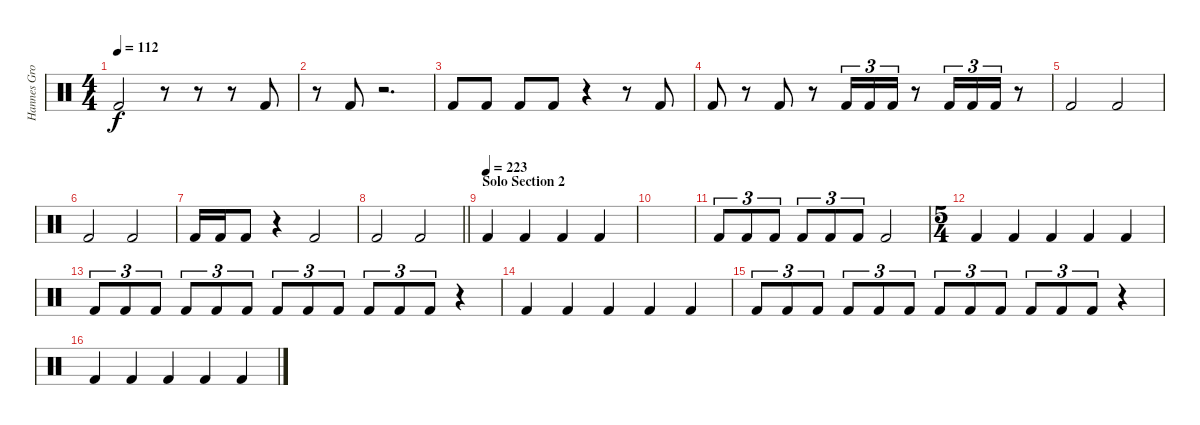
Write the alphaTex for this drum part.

\track ("Hannes Grossmann" "Hannes Gro") {instrument percussion}
\staff {score}
\articulation defaults
\ts (4 4)
\tempo 112
\clef neutral
\ks c "Kick (hit) 2".2{dy f}
r.8 r.8 r.8 "Kick (hit) 2".8 |
r.8 "Kick (hit) 2".8 r.2{d} |
"Kick (hit) 2".8 "Kick (hit) 2".8 "Kick (hit) 2".8 "Kick (hit) 2".8 r.4 r.8 "Kick (hit) 2".8 |
"Kick (hit) 2".8 r.8 "Kick (hit) 2".8 r.8 "Kick (hit) 2".16{tu (3 2)} "Kick (hit) 2".16{tu (3 2)} "Kick (hit) 2".16{tu (3 2)} r.8 "Kick (hit) 2".16{tu (3 2)} "Kick (hit) 2".16{tu (3 2)} "Kick (hit) 2".16{tu (3 2)} r.8 |
"Kick (hit) 2".2 "Kick (hit) 2".2 |
"Kick (hit) 2".2 "Kick (hit) 2".2 |
"Kick (hit) 2".16 "Kick (hit) 2".16 "Kick (hit) 2".8 r.4 "Kick (hit) 2".2 |
\barLineRight lightlight "Kick (hit) 2".2 "Kick (hit) 2".2
|
\section ("" "Solo Section 2")
\tempo (223)
"Kick (hit) 2".4 "Kick (hit) 2".4 "Kick (hit) 2".4 "Kick (hit) 2".4 |
|
"Kick (hit) 2".8{tu (3 2)} "Kick (hit) 2".8{tu (3 2)} "Kick (hit) 2".8{tu (3 2)} "Kick (hit) 2".8{tu (3 2)} "Kick (hit) 2".8{tu (3 2)} "Kick (hit) 2".8{tu (3 2)} "Kick (hit) 2".2 |
\ts (5 4)
"Kick (hit) 2".4 "Kick (hit) 2".4 "Kick (hit) 2".4 "Kick (hit) 2".4 "Kick (hit) 2".4 |
"Kick (hit) 2".8{tu (3 2)} "Kick (hit) 2".8{tu (3 2)} "Kick (hit) 2".8{tu (3 2)} "Kick (hit) 2".8{tu (3 2)} "Kick (hit) 2".8{tu (3 2)} "Kick (hit) 2".8{tu (3 2)} "Kick (hit) 2".8{tu (3 2)} "Kick (hit) 2".8{tu (3 2)} "Kick (hit) 2".8{tu (3 2)} "Kick (hit) 2".8{tu (3 2)} "Kick (hit) 2".8{tu (3 2)} "Kick (hit) 2".8{tu (3 2)} r.4 |
"Kick (hit) 2".4 "Kick (hit) 2".4 "Kick (hit) 2".4 "Kick (hit) 2".4 "Kick (hit) 2".4 |
"Kick (hit) 2".8{tu (3 2)} "Kick (hit) 2".8{tu (3 2)} "Kick (hit) 2".8{tu (3 2)} "Kick (hit) 2".8{tu (3 2)} "Kick (hit) 2".8{tu (3 2)} "Kick (hit) 2".8{tu (3 2)} "Kick (hit) 2".8{tu (3 2)} "Kick (hit) 2".8{tu (3 2)} "Kick (hit) 2".8{tu (3 2)} "Kick (hit) 2".8{tu (3 2)} "Kick (hit) 2".8{tu (3 2)} "Kick (hit) 2".8{tu (3 2)} r.4 |
"Kick (hit) 2".4 "Kick (hit) 2".4 "Kick (hit) 2".4 "Kick (hit) 2".4 "Kick (hit) 2".4
